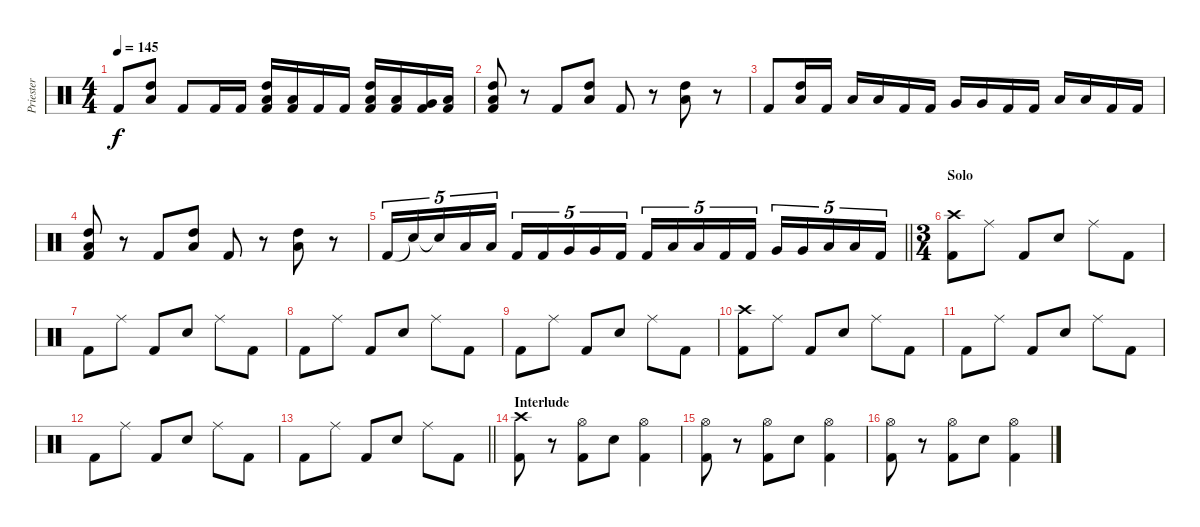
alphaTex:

\track ("Priester" "Priester") {instrument percussion}
\staff {score}
\articulation defaults
\ts (4 4)
\tempo 145
\clef neutral
\ks c "Kick (hit) 2".8{dy f}
("High Tom (hit)" "Low Floor Tom (hit)").8 "Kick (hit) 2".8 "Kick (hit) 2".16 "Kick (hit) 2".16 ("High Tom (hit)" "Low Floor Tom (hit)" "Kick (hit) 2").16 ("Low Tom (hit)" "Kick (hit) 2").16 "Kick (hit) 2".16 "Kick (hit) 2".16 ("High Tom (hit)" "Low Floor Tom (hit)" "Kick (hit) 2").16 ("Low Tom (hit)" "Kick (hit) 2").16 ("Very Low Tom (hit)" "Kick (hit) 2").16 ("Low Floor Tom (hit)" "Kick (hit) 2").16 |
("High Tom (hit)" "Low Floor Tom (hit)" "Kick (hit) 2").8 r.8 "Kick (hit) 2".8 ("High Tom (hit)" "Low Floor Tom (hit)").8 "Kick (hit) 2".8 r.8 ("High Tom (hit)" "Low Floor Tom (hit)").8 r.8 |
"Kick (hit) 2".8 ("High Tom (hit)" "Low Floor Tom (hit)").16 "Kick (hit) 2".16 "Low Floor Tom (hit)".16 "Low Floor Tom (hit)".16 "Kick (hit) 2".16 "Kick (hit) 2".16 "Very Low Tom (hit)".16 "Very Low Tom (hit)".16 "Kick (hit) 2".16 "Kick (hit) 2".16 "Low Tom (hit)".16 "Low Tom (hit)".16 "Kick (hit) 2".16 "Kick (hit) 2".16 |
("High Tom (hit)" "Low Floor Tom (hit)" "Kick (hit) 2").8 r.8 "Kick (hit) 2".8 ("High Tom (hit)" "Low Floor Tom (hit)").8 "Kick (hit) 2".8 r.8 ("High Tom (hit)" "Low Floor Tom (hit)").8 r.8 |
\barLineRight lightlight "Kick (hit) 2".16{tu (5 4)} "Snare (hit)"{t}.16{tu (5 4)} "Snare (hit)"{t}.16{tu (5 4)} "Low Tom (hit)".16{tu (5 4)} "Low Tom (hit)".16{tu (5 4)} "Kick (hit) 2".16{tu (5 4)} "Kick (hit) 2".16{tu (5 4)} "Very Low Tom (hit)".16{tu (5 4)} "Very Low Tom (hit)".16{tu (5 4)} "Kick (hit) 2".16{tu (5 4)} "Kick (hit) 2".16{tu (5 4)} "Low Tom (hit)".16{tu (5 4)} "Low Tom (hit)".16{tu (5 4)} "Kick (hit) 2".16{tu (5 4)} "Kick (hit) 2".16{tu (5 4)} "Very Low Tom (hit)".16{tu (5 4)} "Very Low Tom (hit)".16{tu (5 4)} "Low Floor Tom (hit)".16{tu (5 4)} "Low Floor Tom (hit)".16{tu (5 4)} "Kick (hit) 2".16{tu (5 4)}
|
\ts (3 4)
\section ("" "Solo")
("Crash high (hit)" "Kick (hit) 2").8 "Ride (middle)".8 "Kick (hit) 2".8 "Electric Snare (hit)".8 "Ride (middle)".8 "Kick (hit) 2".8 |
"Kick (hit) 2".8 "Ride (middle)".8 "Kick (hit) 2".8 "Electric Snare (hit)".8 "Ride (middle)".8 "Kick (hit) 2".8 |
"Kick (hit) 2".8 "Ride (middle)".8 "Kick (hit) 2".8 "Electric Snare (hit)".8 "Ride (middle)".8 "Kick (hit) 2".8 |
"Kick (hit) 2".8 "Ride (middle)".8 "Kick (hit) 2".8 "Electric Snare (hit)".8 "Ride (middle)".8 "Kick (hit) 2".8 |
("Crash high (hit)" "Kick (hit) 2").8 "Ride (middle)".8 "Kick (hit) 2".8 "Electric Snare (hit)".8 "Ride (middle)".8 "Kick (hit) 2".8 |
"Kick (hit) 2".8 "Ride (middle)".8 "Kick (hit) 2".8 "Electric Snare (hit)".8 "Ride (middle)".8 "Kick (hit) 2".8 |
"Kick (hit) 2".8 "Ride (middle)".8 "Kick (hit) 2".8 "Electric Snare (hit)".8 "Ride (middle)".8 "Kick (hit) 2".8 |
\barLineRight lightlight "Kick (hit) 2".8 "Ride (middle)".8 "Kick (hit) 2".8 "Electric Snare (hit)".8 "Ride (middle)".8 "Kick (hit) 2".8
|
\section ("" "Interlude")
("Crash high (hit)" "Kick (hit) 2").8 r.8 ("Hi-Hat (open)" "Kick (hit) 2").8 "Electric Snare (hit)".8 ("Hi-Hat (open)" "Kick (hit) 2").4 |
("Hi-Hat (open)" "Kick (hit) 2").8 r.8 ("Hi-Hat (open)" "Kick (hit) 2").8 "Electric Snare (hit)".8 ("Hi-Hat (open)" "Kick (hit) 2").4 |
("Hi-Hat (open)" "Kick (hit) 2").8 r.8 ("Hi-Hat (open)" "Kick (hit) 2").8 "Electric Snare (hit)".8 ("Hi-Hat (open)" "Kick (hit) 2").4
